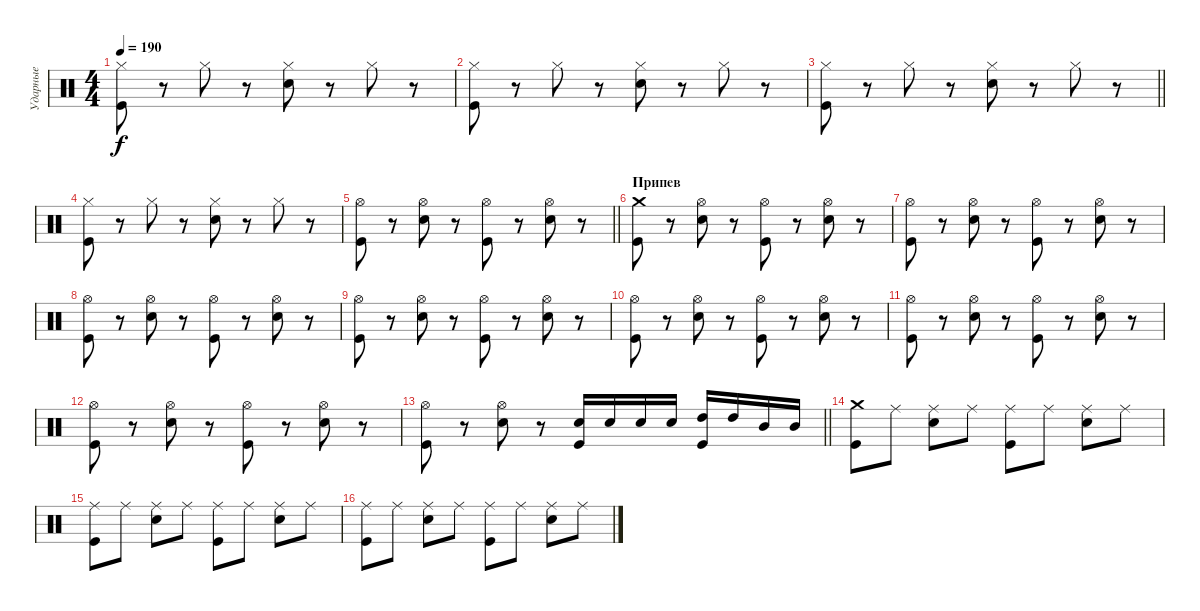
\track ("Ударные" "Ударные") {instrument percussion}
\staff {score}
\articulation defaults
\ts (4 4)
\tempo 190
\clef neutral
\ks c
("Hi-Hat (closed)" "Kick (hit)").8{dy f} r.8 "Hi-Hat (closed)".8 r.8 ("Hi-Hat (closed)" "Electric Snare (hit)").8 r.8 "Hi-Hat (closed)".8 r.8 |
("Hi-Hat (closed)" "Kick (hit)").8 r.8 "Hi-Hat (closed)".8 r.8 ("Hi-Hat (closed)" "Electric Snare (hit)").8 r.8 "Hi-Hat (closed)".8 r.8 |
\barLineRight lightlight
("Hi-Hat (closed)" "Kick (hit)").8 r.8 "Hi-Hat (closed)".8 r.8 ("Hi-Hat (closed)" "Electric Snare (hit)").8 r.8 "Hi-Hat (closed)".8 r.8 |
("Hi-Hat (closed)" "Kick (hit)").8 r.8 "Hi-Hat (closed)".8 r.8 ("Hi-Hat (closed)" "Electric Snare (hit)").8 r.8 "Hi-Hat (closed)".8 r.8 |
\barLineRight lightlight
("Hi-Hat (open)" "Kick (hit)").8 r.8 ("Hi-Hat (open)" "Electric Snare (hit)").8 r.8 ("Hi-Hat (open)" "Kick (hit)").8 r.8 ("Hi-Hat (open)" "Electric Snare (hit)").8 r.8 |
\section ("" "Припев")
("Crash medium (hit)" "Kick (hit)").8 r.8 ("Hi-Hat (open)" "Electric Snare (hit)").8 r.8 ("Hi-Hat (open)" "Kick (hit)").8 r.8 ("Hi-Hat (open)" "Electric Snare (hit)").8 r.8 |
("Hi-Hat (open)" "Kick (hit)").8 r.8 ("Hi-Hat (open)" "Electric Snare (hit)").8 r.8 ("Hi-Hat (open)" "Kick (hit)").8 r.8 ("Hi-Hat (open)" "Electric Snare (hit)").8 r.8 |
("Hi-Hat (open)" "Kick (hit)").8 r.8 ("Hi-Hat (open)" "Electric Snare (hit)").8 r.8 ("Hi-Hat (open)" "Kick (hit)").8 r.8 ("Hi-Hat (open)" "Electric Snare (hit)").8 r.8 |
("Hi-Hat (open)" "Kick (hit)").8 r.8 ("Hi-Hat (open)" "Electric Snare (hit)").8 r.8 ("Hi-Hat (open)" "Kick (hit)").8 r.8 ("Hi-Hat (open)" "Electric Snare (hit)").8 r.8 |
("Hi-Hat (open)" "Kick (hit)").8 r.8 ("Hi-Hat (open)" "Electric Snare (hit)").8 r.8 ("Hi-Hat (open)" "Kick (hit)").8 r.8 ("Hi-Hat (open)" "Electric Snare (hit)").8 r.8 |
("Hi-Hat (open)" "Kick (hit)").8 r.8 ("Hi-Hat (open)" "Electric Snare (hit)").8 r.8 ("Hi-Hat (open)" "Kick (hit)").8 r.8 ("Hi-Hat (open)" "Electric Snare (hit)").8 r.8 |
("Hi-Hat (open)" "Kick (hit)").8 r.8 ("Hi-Hat (open)" "Electric Snare (hit)").8 r.8 ("Hi-Hat (open)" "Kick (hit)").8 r.8 ("Hi-Hat (open)" "Electric Snare (hit)").8 r.8 |
\barLineRight lightlight
("Hi-Hat (open)" "Kick (hit)").8 r.8 ("Hi-Hat (open)" "Electric Snare (hit)").8 r.8 ("Electric Snare (hit)" "Kick (hit)").16 "Electric Snare (hit)".16 "Electric Snare (hit)".16 "Electric Snare (hit)".16 ("High Tom (hit)" "Kick (hit)").16 "High Tom (hit)".16 "Mid Tom (hit)".16 "Mid Tom (hit)".16 |
\section ("" " ")
("Crash medium (hit)" "Kick (hit)").8 "Ride (middle)".8 ("Ride (middle)" "Electric Snare (hit)").8 "Ride (middle)".8 ("Ride (middle)" "Kick (hit)").8 "Ride (middle)".8 ("Ride (middle)" "Electric Snare (hit)").8 "Ride (middle)".8 |
("Ride (middle)" "Kick (hit)").8 "Ride (middle)".8 ("Ride (middle)" "Electric Snare (hit)").8 "Ride (middle)".8 ("Ride (middle)" "Kick (hit)").8 "Ride (middle)".8 ("Ride (middle)" "Electric Snare (hit)").8 "Ride (middle)".8 |
("Ride (middle)" "Kick (hit)").8 "Ride (middle)".8 ("Ride (middle)" "Electric Snare (hit)").8 "Ride (middle)".8 ("Ride (middle)" "Kick (hit)").8 "Ride (middle)".8 ("Ride (middle)" "Electric Snare (hit)").8 "Ride (middle)".8
